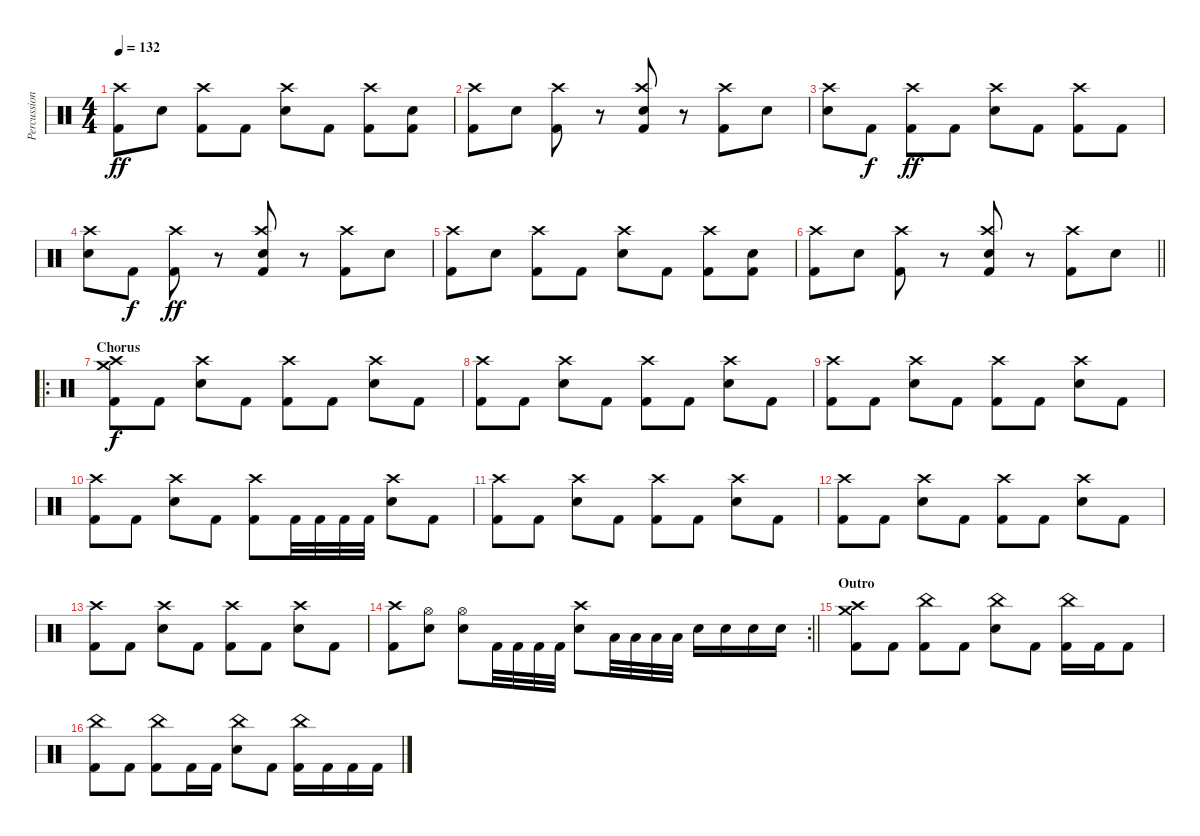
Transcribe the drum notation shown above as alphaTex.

\track ("Percussion" "Percussion") {instrument percussion}
\staff {score}
\articulation defaults
\ts (4 4)
\tempo 132
\clef neutral
\ks c
("Kick (hit) 2" "Crash high (hit)").8{dy ff} "Electric Snare (hit)".8 ("Kick (hit) 2" "Crash high (hit)").8 "Kick (hit) 2".8 ("Electric Snare (hit)" "Crash high (hit)").8 "Kick (hit) 2".8 ("Kick (hit) 2" "Crash high (hit)").8 ("Kick (hit) 2" "Electric Snare (hit)").8 |
("Kick (hit) 2" "Crash high (hit)").8 "Electric Snare (hit)".8 ("Kick (hit) 2" "Crash high (hit)").8 r.8 ("Kick (hit) 2" "Electric Snare (hit)" "Crash high (hit)").8 r.8 ("Kick (hit) 2" "Crash high (hit)").8 "Electric Snare (hit)".8 |
("Electric Snare (hit)" "Crash high (hit)").8 "Kick (hit) 2".8{dy f} ("Kick (hit) 2" "Crash high (hit)").8{dy ff} "Kick (hit) 2".8 ("Electric Snare (hit)" "Crash high (hit)").8 "Kick (hit) 2".8 ("Kick (hit) 2" "Crash high (hit)").8 "Kick (hit) 2".8 |
("Electric Snare (hit)" "Crash high (hit)").8 "Kick (hit) 2".8{dy f} ("Kick (hit) 2" "Crash high (hit)").8{dy ff} r.8 ("Kick (hit) 2" "Electric Snare (hit)" "Crash high (hit)").8 r.8 ("Kick (hit) 2" "Crash high (hit)").8 "Electric Snare (hit)".8 |
("Kick (hit) 2" "Crash high (hit)").8 "Electric Snare (hit)".8 ("Kick (hit) 2" "Crash high (hit)").8 "Kick (hit) 2".8 ("Electric Snare (hit)" "Crash high (hit)").8 "Kick (hit) 2".8 ("Kick (hit) 2" "Crash high (hit)").8 ("Kick (hit) 2" "Electric Snare (hit)").8 |
\barLineRight lightlight
("Kick (hit) 2" "Crash high (hit)").8 "Electric Snare (hit)".8 ("Kick (hit) 2" "Crash high (hit)").8 r.8 ("Kick (hit) 2" "Electric Snare (hit)" "Crash high (hit)").8 r.8 ("Kick (hit) 2" "Crash high (hit)").8 "Electric Snare (hit)".8 |
\ro
\section ("" "Chorus")
("Crash medium (hit)" "Crash high (hit)" "Kick (hit) 2").8{dy f} "Kick (hit) 2".8 ("Crash high (hit)" "Electric Snare (hit)").8 "Kick (hit) 2".8 ("Crash high (hit)" "Kick (hit) 2").8 "Kick (hit) 2".8 ("Crash high (hit)" "Electric Snare (hit)").8 "Kick (hit) 2".8 |
("Crash high (hit)" "Kick (hit) 2").8 "Kick (hit) 2".8 ("Crash high (hit)" "Electric Snare (hit)").8 "Kick (hit) 2".8 ("Crash high (hit)" "Kick (hit) 2").8 "Kick (hit) 2".8 ("Crash high (hit)" "Electric Snare (hit)").8 "Kick (hit) 2".8 |
("Crash high (hit)" "Kick (hit) 2").8 "Kick (hit) 2".8 ("Crash high (hit)" "Electric Snare (hit)").8 "Kick (hit) 2".8 ("Crash high (hit)" "Kick (hit) 2").8 "Kick (hit) 2".8 ("Crash high (hit)" "Electric Snare (hit)").8 "Kick (hit) 2".8 |
("Crash high (hit)" "Kick (hit) 2").8 "Kick (hit) 2".8 ("Crash high (hit)" "Electric Snare (hit)").8 "Kick (hit) 2".8 ("Crash high (hit)" "Kick (hit) 2").8 "Kick (hit) 2".32 "Kick (hit) 2".32 "Kick (hit) 2".32 "Kick (hit) 2".32 ("Crash high (hit)" "Electric Snare (hit)").8 "Kick (hit) 2".8 |
("Crash high (hit)" "Kick (hit) 2").8 "Kick (hit) 2".8 ("Crash high (hit)" "Electric Snare (hit)").8 "Kick (hit) 2".8 ("Crash high (hit)" "Kick (hit) 2").8 "Kick (hit) 2".8 ("Crash high (hit)" "Electric Snare (hit)").8 "Kick (hit) 2".8 |
("Crash high (hit)" "Kick (hit) 2").8 "Kick (hit) 2".8 ("Crash high (hit)" "Electric Snare (hit)").8 "Kick (hit) 2".8 ("Crash high (hit)" "Kick (hit) 2").8 "Kick (hit) 2".8 ("Crash high (hit)" "Electric Snare (hit)").8 "Kick (hit) 2".8 |
("Crash high (hit)" "Kick (hit) 2").8 "Kick (hit) 2".8 ("Crash high (hit)" "Electric Snare (hit)").8 "Kick (hit) 2".8 ("Crash high (hit)" "Kick (hit) 2").8 "Kick (hit) 2".8 ("Crash high (hit)" "Electric Snare (hit)").8 "Kick (hit) 2".8 |
\rc 2
\barLineRight lightlight
("Crash high (hit)" "Kick (hit) 2").8 ("Hi-Hat (open)" "Electric Snare (hit)").8 ("Hi-Hat (open)" "Electric Snare (hit)").8 "Kick (hit) 2".32 "Kick (hit) 2".32 "Kick (hit) 2".32 "Kick (hit) 2".32 ("Crash high (hit)" "Electric Snare (hit)").8 "Low Tom (hit)".32 "Low Tom (hit)".32 "Low Tom (hit)".32 "Low Tom (hit)".32 "Electric Snare (hit)".16 "Electric Snare (hit)".16 "Electric Snare (hit)".16 "Electric Snare (hit)".16 |
\section ("" "Outro")
("Crash medium (hit)" "Crash high (hit)" "Kick (hit) 2").8 "Kick (hit) 2".8 ("China (hit)" "Kick (hit) 2").8 "Kick (hit) 2".8 ("China (hit)" "Electric Snare (hit)").8 "Kick (hit) 2".8 ("China (hit)" "Kick (hit) 2").16 "Kick (hit) 2".16 "Kick (hit) 2".8 |
("China (hit)" "Kick (hit) 2").8 "Kick (hit) 2".8 ("China (hit)" "Kick (hit) 2").8 "Kick (hit) 2".16 "Kick (hit) 2".16 ("China (hit)" "Electric Snare (hit)").8 "Kick (hit) 2".8 ("China (hit)" "Kick (hit) 2").16 "Kick (hit) 2".16 "Kick (hit) 2".16 "Kick (hit) 2".16
